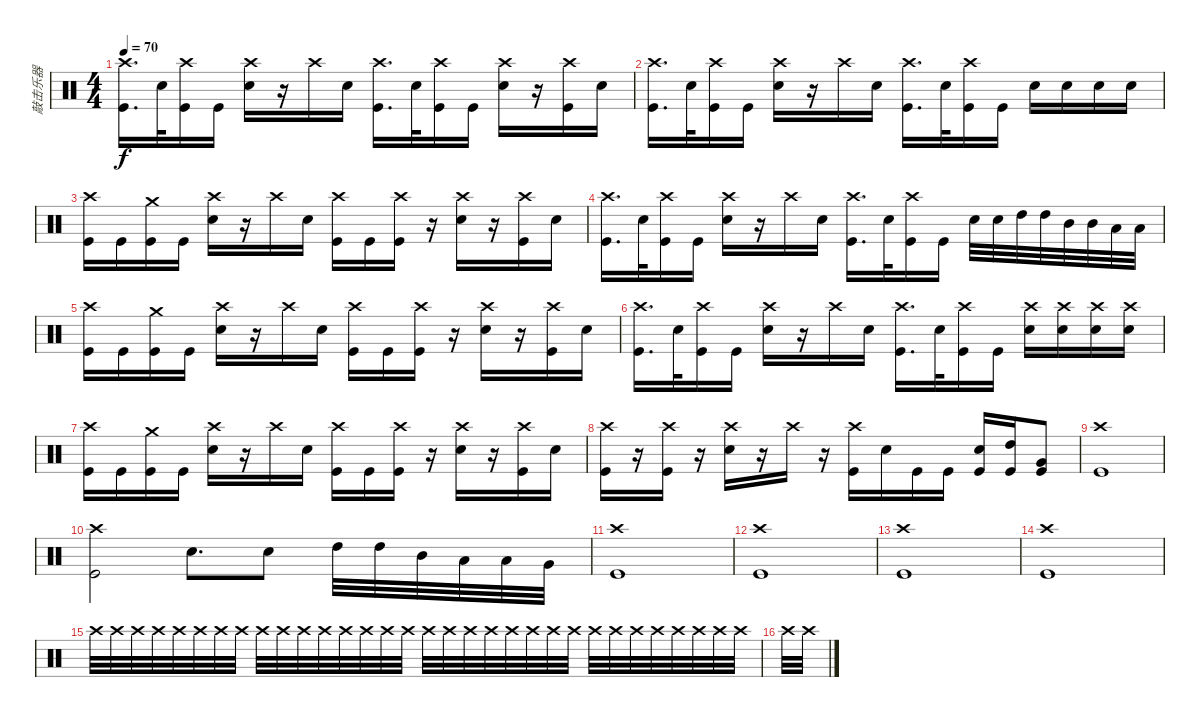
\track ("敲击乐器" "敲击乐器") {instrument percussion}
\staff {score}
\articulation defaults
\ts (4 4)
\tempo 70
\clef neutral
\ks c
("Crash high (hit)" "Kick (hit)").16{d dy f} "Snare (hit) 2".32 ("Crash high (hit)" "Kick (hit)").16 "Kick (hit)".16 ("Crash high (hit)" "Snare (hit) 2").16 r.16 "Crash high (hit)".16 "Snare (hit) 2".16 ("Crash high (hit)" "Kick (hit)").16{d} "Snare (hit) 2".32 ("Crash high (hit)" "Kick (hit)").16 "Kick (hit)".16 ("Snare (hit) 2" "Crash high (hit)").16 r.16 ("Crash high (hit)" "Kick (hit)").16 "Snare (hit) 2".16 |
("Crash high (hit)" "Kick (hit)").16{d} "Snare (hit) 2".32 ("Crash high (hit)" "Kick (hit)").16 "Kick (hit)".16 ("Crash high (hit)" "Snare (hit) 2").16 r.16 "Crash high (hit)".16 "Snare (hit) 2".16 ("Crash high (hit)" "Kick (hit)").16{d} "Snare (hit) 2".32 ("Crash high (hit)" "Kick (hit)").16 "Kick (hit)".16 "Snare (hit) 2".16 "Snare (hit) 2".16 "Snare (hit) 2".16 "Snare (hit) 2".16 |
("Crash high (hit)" "Kick (hit)").16 "Kick (hit)".16 ("Crash medium (hit)" "Kick (hit)").16 "Kick (hit)".16 ("Snare (hit) 2" "Crash high (hit)").16 r.16 "Crash high (hit)".16 "Snare (hit) 2".16 ("Crash high (hit)" "Kick (hit)").16 "Kick (hit)".16 ("Crash high (hit)" "Kick (hit)").16 r.16 ("Snare (hit) 2" "Crash high (hit)").16 r.16 ("Crash high (hit)" "Kick (hit)").16 "Snare (hit) 2".16 |
("Crash high (hit)" "Kick (hit)").16{d} "Snare (hit) 2".32 ("Crash high (hit)" "Kick (hit)").16 "Kick (hit)".16 ("Crash high (hit)" "Snare (hit) 2").16 r.16 "Crash high (hit)".16 "Snare (hit) 2".16 ("Crash high (hit)" "Kick (hit)").16{d} "Snare (hit) 2".32 ("Crash high (hit)" "Kick (hit)").16 "Kick (hit)".16 "Snare (hit) 2".32 "Snare (hit) 2".32 "High Tom (hit)".32 "High Tom (hit)".32 "Mid Tom (hit)".32 "Mid Tom (hit)".32 "Low Tom (hit)".32 "Low Tom (hit)".32 |
("Crash high (hit)" "Kick (hit)").16 "Kick (hit)".16 ("Crash medium (hit)" "Kick (hit)").16 "Kick (hit)".16 ("Snare (hit) 2" "Crash high (hit)").16 r.16 "Crash high (hit)".16 "Snare (hit) 2".16 ("Crash high (hit)" "Kick (hit)").16 "Kick (hit)".16 ("Crash high (hit)" "Kick (hit)").16 r.16 ("Snare (hit) 2" "Crash high (hit)").16 r.16 ("Crash high (hit)" "Kick (hit)").16 "Snare (hit) 2".16 |
("Crash high (hit)" "Kick (hit)").16{d} "Snare (hit) 2".32 ("Crash high (hit)" "Kick (hit)").16 "Kick (hit)".16 ("Crash high (hit)" "Snare (hit) 2").16 r.16 "Crash high (hit)".16 "Snare (hit) 2".16 ("Crash high (hit)" "Kick (hit)").16{d} "Snare (hit) 2".32 ("Crash high (hit)" "Kick (hit)").16 "Kick (hit)".16 ("Crash high (hit)" "Snare (hit) 2").16 ("Crash high (hit)" "Snare (hit) 2").16 ("Crash high (hit)" "Snare (hit) 2").16 ("Crash high (hit)" "Snare (hit) 2").16 |
("Crash high (hit)" "Kick (hit)").16 "Kick (hit)".16 ("Crash medium (hit)" "Kick (hit)").16 "Kick (hit)".16 ("Snare (hit) 2" "Crash high (hit)").16 r.16 "Crash high (hit)".16 "Snare (hit) 2".16 ("Crash high (hit)" "Kick (hit)").16 "Kick (hit)".16 ("Crash high (hit)" "Kick (hit)").16 r.16 ("Snare (hit) 2" "Crash high (hit)").16 r.16 ("Crash high (hit)" "Kick (hit)").16 "Snare (hit) 2".16 |
("Crash high (hit)" "Kick (hit)").16 r.16 ("Crash high (hit)" "Kick (hit)").16 r.16 ("Crash high (hit)" "Snare (hit) 2").16 r.16 "Crash high (hit)".16 r.16 ("Crash high (hit)" "Kick (hit)").16 "Snare (hit) 2".16 "Kick (hit)".16 "Kick (hit)".16 ("Snare (hit) 2" "Kick (hit)").16 ("High Tom (hit)" "Kick (hit)").16 ("Very Low Tom (hit)" "Kick (hit)").8 |
("Crash high (hit)" "Kick (hit)").1 |
("Crash high (hit)" "Kick (hit)").2 "Snare (hit) 2".8{d} "Snare (hit) 2".8 "High Tom (hit)".32 "High Tom (hit)".32 "Mid Tom (hit)".32 "Low Tom (hit)".32 "Low Tom (hit)".32 "Very Low Tom (hit)".32 |
("Crash high (hit)" "Kick (hit)").1 |
("Crash high (hit)" "Kick (hit)").1 |
("Crash high (hit)" "Kick (hit)").1 |
("Crash high (hit)" "Kick (hit)").1 |
"Crash high (hit)".32{volume 0} "Crash high (hit)".32{volume 5} "Crash high (hit)".32 "Crash high (hit)".32 "Crash high (hit)".32 "Crash high (hit)".32 "Crash high (hit)".32 "Crash high (hit)".32 "Crash high (hit)".32 "Crash high (hit)".32 "Crash high (hit)".32 "Crash high (hit)".32 "Crash high (hit)".32 "Crash high (hit)".32 "Crash high (hit)".32 "Crash high (hit)".32 "Crash high (hit)".32{volume 3} "Crash high (hit)".32 "Crash high (hit)".32 "Crash high (hit)".32 "Crash high (hit)".32 "Crash high (hit)".32 "Crash high (hit)".32 "Crash high (hit)".32 "Crash high (hit)".32 "Crash high (hit)".32 "Crash high (hit)".32 "Crash high (hit)".32 "Crash high (hit)".32 "Crash high (hit)".32 "Crash high (hit)".32 "Crash high (hit)".32 |
"Crash high (hit)".32 "Crash high (hit)".32
